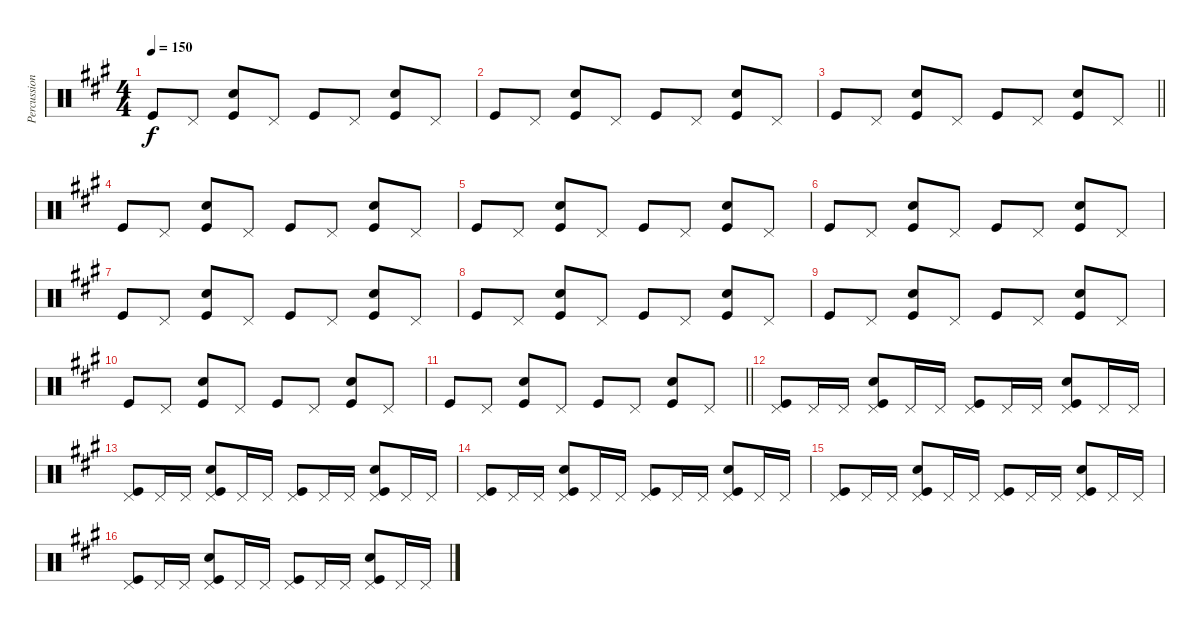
\track ("Percussions" "Percussion") {instrument percussion}
\staff {score}
\articulation defaults
\ts (4 4)
\tempo 150
\clef neutral
\ks a "Kick (hit)".8{dy f} "Pedal Hi-Hat (hit)".8
("Snare (hit) 2" "Kick (hit)").8 "Pedal Hi-Hat (hit)".8 "Kick (hit)".8 "Pedal Hi-Hat (hit)".8 ("Snare (hit) 2" "Kick (hit)").8 "Pedal Hi-Hat (hit)".8 |
"Kick (hit)".8 "Pedal Hi-Hat (hit)".8 ("Snare (hit) 2" "Kick (hit)").8 "Pedal Hi-Hat (hit)".8 "Kick (hit)".8 "Pedal Hi-Hat (hit)".8 ("Snare (hit) 2" "Kick (hit)").8 "Pedal Hi-Hat (hit)".8 |
\barLineRight lightlight "Kick (hit)".8 "Pedal Hi-Hat (hit)".8
("Snare (hit) 2" "Kick (hit)").8 "Pedal Hi-Hat (hit)".8 "Kick (hit)".8 "Pedal Hi-Hat (hit)".8 ("Snare (hit) 2" "Kick (hit)").8 "Pedal Hi-Hat (hit)".8 |
"Kick (hit)".8 "Pedal Hi-Hat (hit)".8 ("Snare (hit) 2" "Kick (hit)").8 "Pedal Hi-Hat (hit)".8 "Kick (hit)".8 "Pedal Hi-Hat (hit)".8 ("Snare (hit) 2" "Kick (hit)").8 "Pedal Hi-Hat (hit)".8 |
"Kick (hit)".8 "Pedal Hi-Hat (hit)".8 ("Snare (hit) 2" "Kick (hit)").8 "Pedal Hi-Hat (hit)".8 "Kick (hit)".8 "Pedal Hi-Hat (hit)".8 ("Snare (hit) 2" "Kick (hit)").8 "Pedal Hi-Hat (hit)".8 |
"Kick (hit)".8 "Pedal Hi-Hat (hit)".8 ("Snare (hit) 2" "Kick (hit)").8 "Pedal Hi-Hat (hit)".8 "Kick (hit)".8 "Pedal Hi-Hat (hit)".8 ("Snare (hit) 2" "Kick (hit)").8 "Pedal Hi-Hat (hit)".8 |
"Kick (hit)".8 "Pedal Hi-Hat (hit)".8 ("Snare (hit) 2" "Kick (hit)").8 "Pedal Hi-Hat (hit)".8 "Kick (hit)".8 "Pedal Hi-Hat (hit)".8 ("Snare (hit) 2" "Kick (hit)").8 "Pedal Hi-Hat (hit)".8 |
"Kick (hit)".8 "Pedal Hi-Hat (hit)".8 ("Snare (hit) 2" "Kick (hit)").8 "Pedal Hi-Hat (hit)".8 "Kick (hit)".8 "Pedal Hi-Hat (hit)".8 ("Snare (hit) 2" "Kick (hit)").8 "Pedal Hi-Hat (hit)".8 |
"Kick (hit)".8 "Pedal Hi-Hat (hit)".8 ("Snare (hit) 2" "Kick (hit)").8 "Pedal Hi-Hat (hit)".8 "Kick (hit)".8 "Pedal Hi-Hat (hit)".8 ("Snare (hit) 2" "Kick (hit)").8 "Pedal Hi-Hat (hit)".8 |
"Kick (hit)".8 "Pedal Hi-Hat (hit)".8 ("Snare (hit) 2" "Kick (hit)").8 "Pedal Hi-Hat (hit)".8 "Kick (hit)".8 "Pedal Hi-Hat (hit)".8 ("Snare (hit) 2" "Kick (hit)").8 "Pedal Hi-Hat (hit)".8 |
\barLineRight lightlight "Kick (hit)".8 "Pedal Hi-Hat (hit)".8
("Snare (hit) 2" "Kick (hit)").8 "Pedal Hi-Hat (hit)".8 "Kick (hit)".8 "Pedal Hi-Hat (hit)".8 ("Snare (hit) 2" "Kick (hit)").8 "Pedal Hi-Hat (hit)".8 |
("Kick (hit)" "Pedal Hi-Hat (hit)").8 "Pedal Hi-Hat (hit)".16 "Pedal Hi-Hat (hit)".16 ("Snare (hit) 2" "Kick (hit)" "Pedal Hi-Hat (hit)").8 "Pedal Hi-Hat (hit)".16 "Pedal Hi-Hat (hit)".16 ("Kick (hit)" "Pedal Hi-Hat (hit)").8 "Pedal Hi-Hat (hit)".16 "Pedal Hi-Hat (hit)".16 ("Snare (hit) 2" "Kick (hit)" "Pedal Hi-Hat (hit)").8 "Pedal Hi-Hat (hit)".16 "Pedal Hi-Hat (hit)".16 |
("Kick (hit)" "Pedal Hi-Hat (hit)").8 "Pedal Hi-Hat (hit)".16 "Pedal Hi-Hat (hit)".16 ("Snare (hit) 2" "Kick (hit)" "Pedal Hi-Hat (hit)").8 "Pedal Hi-Hat (hit)".16 "Pedal Hi-Hat (hit)".16 ("Kick (hit)" "Pedal Hi-Hat (hit)").8 "Pedal Hi-Hat (hit)".16 "Pedal Hi-Hat (hit)".16 ("Snare (hit) 2" "Kick (hit)" "Pedal Hi-Hat (hit)").8 "Pedal Hi-Hat (hit)".16 "Pedal Hi-Hat (hit)".16 |
("Kick (hit)" "Pedal Hi-Hat (hit)").8 "Pedal Hi-Hat (hit)".16 "Pedal Hi-Hat (hit)".16 ("Snare (hit) 2" "Kick (hit)" "Pedal Hi-Hat (hit)").8 "Pedal Hi-Hat (hit)".16 "Pedal Hi-Hat (hit)".16 ("Kick (hit)" "Pedal Hi-Hat (hit)").8 "Pedal Hi-Hat (hit)".16 "Pedal Hi-Hat (hit)".16 ("Snare (hit) 2" "Kick (hit)" "Pedal Hi-Hat (hit)").8 "Pedal Hi-Hat (hit)".16 "Pedal Hi-Hat (hit)".16 |
("Kick (hit)" "Pedal Hi-Hat (hit)").8 "Pedal Hi-Hat (hit)".16 "Pedal Hi-Hat (hit)".16 ("Snare (hit) 2" "Kick (hit)" "Pedal Hi-Hat (hit)").8 "Pedal Hi-Hat (hit)".16 "Pedal Hi-Hat (hit)".16 ("Kick (hit)" "Pedal Hi-Hat (hit)").8 "Pedal Hi-Hat (hit)".16 "Pedal Hi-Hat (hit)".16 ("Snare (hit) 2" "Kick (hit)" "Pedal Hi-Hat (hit)").8 "Pedal Hi-Hat (hit)".16 "Pedal Hi-Hat (hit)".16 |
("Kick (hit)" "Pedal Hi-Hat (hit)").8 "Pedal Hi-Hat (hit)".16 "Pedal Hi-Hat (hit)".16 ("Snare (hit) 2" "Kick (hit)" "Pedal Hi-Hat (hit)").8 "Pedal Hi-Hat (hit)".16 "Pedal Hi-Hat (hit)".16 ("Kick (hit)" "Pedal Hi-Hat (hit)").8 "Pedal Hi-Hat (hit)".16 "Pedal Hi-Hat (hit)".16 ("Snare (hit) 2" "Kick (hit)" "Pedal Hi-Hat (hit)").8 "Pedal Hi-Hat (hit)".16 "Pedal Hi-Hat (hit)".16
